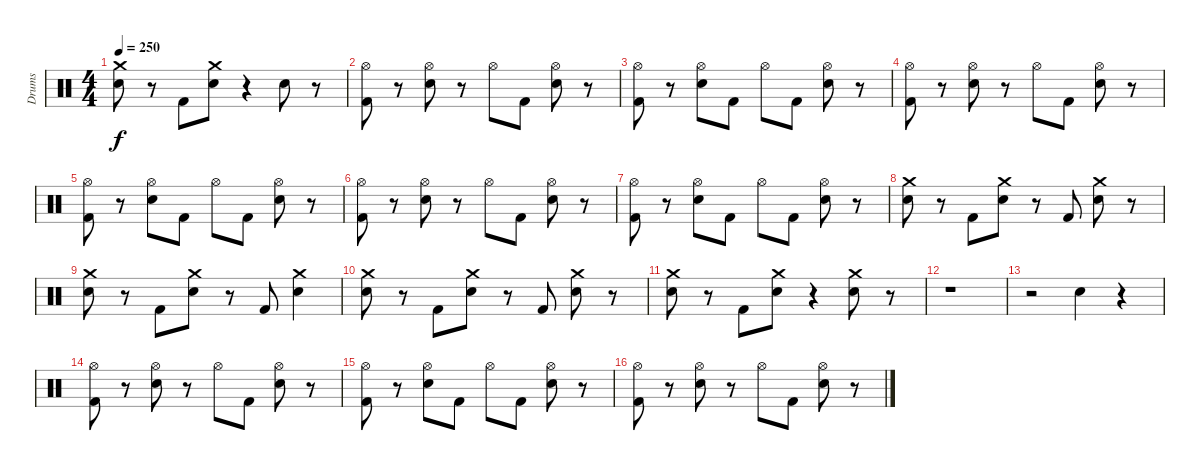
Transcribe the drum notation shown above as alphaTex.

\track ("Drums" "Drums") {instrument percussion}
\staff {score}
\articulation defaults
\ts (4 4)
\tempo 250
\clef neutral
\ks c
("Electric Snare (hit)" "Crash medium (hit)").8{dy f} r.8 "Kick (hit) 2".8 ("Electric Snare (hit)" "Crash medium (hit)").8 r.4 "Electric Snare (hit)".8 r.8 |
("Hi-Hat (open)" "Kick (hit) 2").8 r.8 ("Hi-Hat (open)" "Electric Snare (hit)").8 r.8 "Hi-Hat (open)".8 "Kick (hit) 2".8 ("Hi-Hat (open)" "Electric Snare (hit)").8 r.8 |
("Hi-Hat (open)" "Kick (hit) 2").8 r.8 ("Hi-Hat (open)" "Electric Snare (hit)").8 "Kick (hit) 2".8 "Hi-Hat (open)".8 "Kick (hit) 2".8 ("Hi-Hat (open)" "Electric Snare (hit)").8 r.8 |
("Hi-Hat (open)" "Kick (hit) 2").8 r.8 ("Hi-Hat (open)" "Electric Snare (hit)").8 r.8 "Hi-Hat (open)".8 "Kick (hit) 2".8 ("Hi-Hat (open)" "Electric Snare (hit)").8 r.8 |
("Hi-Hat (open)" "Kick (hit) 2").8 r.8 ("Hi-Hat (open)" "Electric Snare (hit)").8 "Kick (hit) 2".8 "Hi-Hat (open)".8 "Kick (hit) 2".8 ("Hi-Hat (open)" "Electric Snare (hit)").8 r.8 |
("Hi-Hat (open)" "Kick (hit) 2").8 r.8 ("Hi-Hat (open)" "Electric Snare (hit)").8 r.8 "Hi-Hat (open)".8 "Kick (hit) 2".8 ("Hi-Hat (open)" "Electric Snare (hit)").8 r.8 |
("Hi-Hat (open)" "Kick (hit) 2").8 r.8 ("Hi-Hat (open)" "Electric Snare (hit)").8 "Kick (hit) 2".8 "Hi-Hat (open)".8 "Kick (hit) 2".8 ("Hi-Hat (open)" "Electric Snare (hit)").8 r.8 |
("Electric Snare (hit)" "Crash medium (hit)").8 r.8 "Kick (hit) 2".8 ("Electric Snare (hit)" "Crash medium (hit)").8 r.8 "Kick (hit) 2".8 ("Crash medium (hit)" "Electric Snare (hit)").8 r.8 |
("Electric Snare (hit)" "Crash medium (hit)").8 r.8 "Kick (hit) 2".8 ("Electric Snare (hit)" "Crash medium (hit)").8 r.8 "Kick (hit) 2".8 ("Crash medium (hit)" "Electric Snare (hit)").4 |
("Electric Snare (hit)" "Crash medium (hit)").8 r.8 "Kick (hit) 2".8 ("Electric Snare (hit)" "Crash medium (hit)").8 r.8 "Kick (hit) 2".8 ("Crash medium (hit)" "Electric Snare (hit)").8 r.8 |
("Electric Snare (hit)" "Crash medium (hit)").8 r.8 "Kick (hit) 2".8 ("Electric Snare (hit)" "Crash medium (hit)").8 r.4 ("Crash medium (hit)" "Electric Snare (hit)").8 r.8 |
r.1 |
r.2 "Electric Snare (hit)".4 r.4 |
("Hi-Hat (open)" "Kick (hit) 2").8 r.8 ("Hi-Hat (open)" "Electric Snare (hit)").8 r.8 "Hi-Hat (open)".8 "Kick (hit) 2".8 ("Hi-Hat (open)" "Electric Snare (hit)").8 r.8 |
("Hi-Hat (open)" "Kick (hit) 2").8 r.8 ("Hi-Hat (open)" "Electric Snare (hit)").8 "Kick (hit) 2".8 "Hi-Hat (open)".8 "Kick (hit) 2".8 ("Hi-Hat (open)" "Electric Snare (hit)").8 r.8 |
("Hi-Hat (open)" "Kick (hit) 2").8 r.8 ("Hi-Hat (open)" "Electric Snare (hit)").8 r.8 "Hi-Hat (open)".8 "Kick (hit) 2".8 ("Hi-Hat (open)" "Electric Snare (hit)").8 r.8
